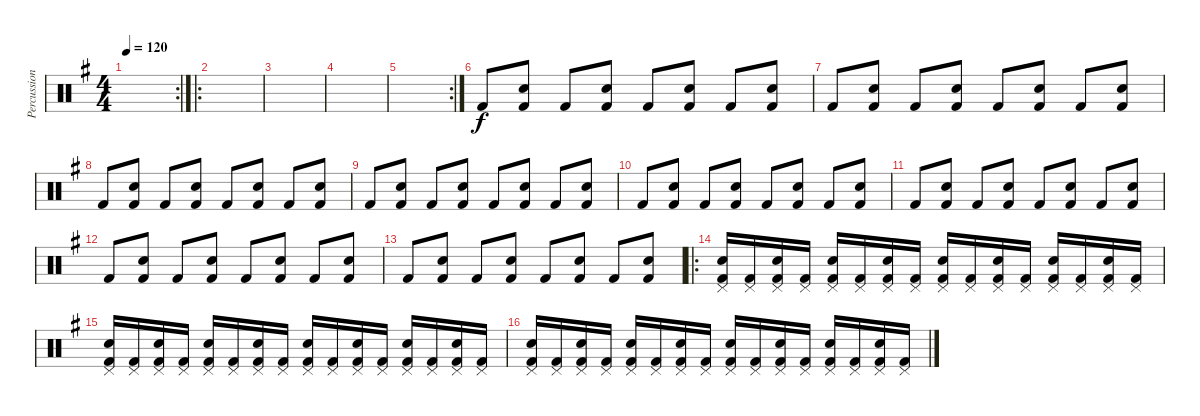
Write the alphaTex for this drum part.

\track ("Percussion" "Percussion") {instrument percussion}
\staff {score}
\articulation defaults
\rc 2
\ts (4 4)
\tempo 120
\clef neutral
\ks eminor
|
\ro
|
|
|
\rc 2
|
"Kick (hit) 2".8 ("Snare (hit) 2" "Kick (hit) 2").8 "Kick (hit) 2".8 ("Snare (hit) 2" "Kick (hit) 2").8 "Kick (hit) 2".8 ("Snare (hit) 2" "Kick (hit) 2").8 "Kick (hit) 2".8 ("Snare (hit) 2" "Kick (hit) 2").8 |
"Kick (hit) 2".8 ("Snare (hit) 2" "Kick (hit) 2").8 "Kick (hit) 2".8 ("Snare (hit) 2" "Kick (hit) 2").8 "Kick (hit) 2".8 ("Snare (hit) 2" "Kick (hit) 2").8 "Kick (hit) 2".8 ("Snare (hit) 2" "Kick (hit) 2").8 |
"Kick (hit) 2".8 ("Snare (hit) 2" "Kick (hit) 2").8 "Kick (hit) 2".8 ("Snare (hit) 2" "Kick (hit) 2").8 "Kick (hit) 2".8 ("Snare (hit) 2" "Kick (hit) 2").8 "Kick (hit) 2".8 ("Snare (hit) 2" "Kick (hit) 2").8 |
"Kick (hit) 2".8 ("Snare (hit) 2" "Kick (hit) 2").8 "Kick (hit) 2".8 ("Snare (hit) 2" "Kick (hit) 2").8 "Kick (hit) 2".8 ("Snare (hit) 2" "Kick (hit) 2").8 "Kick (hit) 2".8 ("Snare (hit) 2" "Kick (hit) 2").8 |
"Kick (hit) 2".8 ("Snare (hit) 2" "Kick (hit) 2").8 "Kick (hit) 2".8 ("Snare (hit) 2" "Kick (hit) 2").8 "Kick (hit) 2".8 ("Snare (hit) 2" "Kick (hit) 2").8 "Kick (hit) 2".8 ("Snare (hit) 2" "Kick (hit) 2").8 |
"Kick (hit) 2".8 ("Snare (hit) 2" "Kick (hit) 2").8 "Kick (hit) 2".8 ("Snare (hit) 2" "Kick (hit) 2").8 "Kick (hit) 2".8 ("Snare (hit) 2" "Kick (hit) 2").8 "Kick (hit) 2".8 ("Snare (hit) 2" "Kick (hit) 2").8 |
"Kick (hit) 2".8 ("Snare (hit) 2" "Kick (hit) 2").8 "Kick (hit) 2".8 ("Snare (hit) 2" "Kick (hit) 2").8 "Kick (hit) 2".8 ("Snare (hit) 2" "Kick (hit) 2").8 "Kick (hit) 2".8 ("Snare (hit) 2" "Kick (hit) 2").8 |
"Kick (hit) 2".8 ("Snare (hit) 2" "Kick (hit) 2").8 "Kick (hit) 2".8 ("Snare (hit) 2" "Kick (hit) 2").8 "Kick (hit) 2".8 ("Snare (hit) 2" "Kick (hit) 2").8 "Kick (hit) 2".8 ("Snare (hit) 2" "Kick (hit) 2").8 |
\ro
("Pedal Hi-Hat (hit)" "Snare (hit) 2" "Kick (hit) 2").16 ("Pedal Hi-Hat (hit)" "Kick (hit) 2").16 ("Pedal Hi-Hat (hit)" "Snare (hit) 2" "Kick (hit) 2").16 ("Pedal Hi-Hat (hit)" "Kick (hit) 2").16 ("Pedal Hi-Hat (hit)" "Snare (hit) 2" "Kick (hit) 2").16 ("Pedal Hi-Hat (hit)" "Kick (hit) 2").16 ("Pedal Hi-Hat (hit)" "Snare (hit) 2" "Kick (hit) 2").16 ("Pedal Hi-Hat (hit)" "Kick (hit) 2").16 ("Pedal Hi-Hat (hit)" "Snare (hit) 2" "Kick (hit) 2").16 ("Pedal Hi-Hat (hit)" "Kick (hit) 2").16 ("Pedal Hi-Hat (hit)" "Snare (hit) 2" "Kick (hit) 2").16 ("Pedal Hi-Hat (hit)" "Kick (hit) 2").16 ("Pedal Hi-Hat (hit)" "Snare (hit) 2" "Kick (hit) 2").16 ("Pedal Hi-Hat (hit)" "Kick (hit) 2").16 ("Pedal Hi-Hat (hit)" "Snare (hit) 2" "Kick (hit) 2").16 ("Pedal Hi-Hat (hit)" "Kick (hit) 2").16 |
("Pedal Hi-Hat (hit)" "Snare (hit) 2" "Kick (hit) 2").16 ("Pedal Hi-Hat (hit)" "Kick (hit) 2").16 ("Pedal Hi-Hat (hit)" "Snare (hit) 2" "Kick (hit) 2").16 ("Pedal Hi-Hat (hit)" "Kick (hit) 2").16 ("Pedal Hi-Hat (hit)" "Snare (hit) 2" "Kick (hit) 2").16 ("Pedal Hi-Hat (hit)" "Kick (hit) 2").16 ("Pedal Hi-Hat (hit)" "Snare (hit) 2" "Kick (hit) 2").16 ("Pedal Hi-Hat (hit)" "Kick (hit) 2").16 ("Pedal Hi-Hat (hit)" "Snare (hit) 2" "Kick (hit) 2").16 ("Pedal Hi-Hat (hit)" "Kick (hit) 2").16 ("Pedal Hi-Hat (hit)" "Snare (hit) 2" "Kick (hit) 2").16 ("Pedal Hi-Hat (hit)" "Kick (hit) 2").16 ("Pedal Hi-Hat (hit)" "Snare (hit) 2" "Kick (hit) 2").16 ("Pedal Hi-Hat (hit)" "Kick (hit) 2").16 ("Pedal Hi-Hat (hit)" "Snare (hit) 2" "Kick (hit) 2").16 ("Pedal Hi-Hat (hit)" "Kick (hit) 2").16 |
("Pedal Hi-Hat (hit)" "Snare (hit) 2" "Kick (hit) 2").16 ("Pedal Hi-Hat (hit)" "Kick (hit) 2").16 ("Pedal Hi-Hat (hit)" "Snare (hit) 2" "Kick (hit) 2").16 ("Pedal Hi-Hat (hit)" "Kick (hit) 2").16 ("Pedal Hi-Hat (hit)" "Snare (hit) 2" "Kick (hit) 2").16 ("Pedal Hi-Hat (hit)" "Kick (hit) 2").16 ("Pedal Hi-Hat (hit)" "Snare (hit) 2" "Kick (hit) 2").16 ("Pedal Hi-Hat (hit)" "Kick (hit) 2").16 ("Pedal Hi-Hat (hit)" "Snare (hit) 2" "Kick (hit) 2").16 ("Pedal Hi-Hat (hit)" "Kick (hit) 2").16 ("Pedal Hi-Hat (hit)" "Snare (hit) 2" "Kick (hit) 2").16 ("Pedal Hi-Hat (hit)" "Kick (hit) 2").16 ("Pedal Hi-Hat (hit)" "Snare (hit) 2" "Kick (hit) 2").16 ("Pedal Hi-Hat (hit)" "Kick (hit) 2").16 ("Pedal Hi-Hat (hit)" "Snare (hit) 2" "Kick (hit) 2").16 ("Pedal Hi-Hat (hit)" "Kick (hit) 2").16
